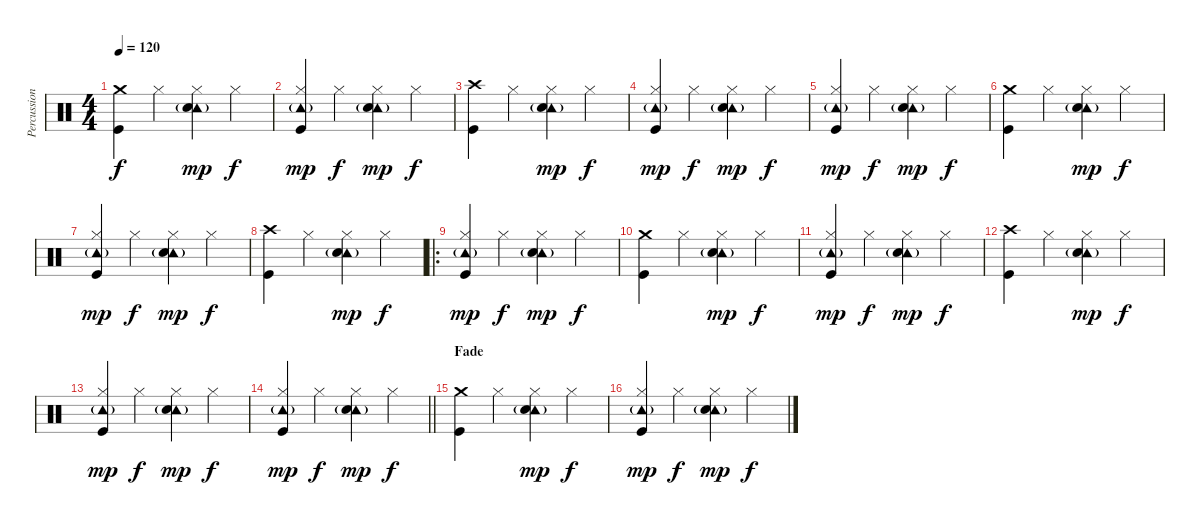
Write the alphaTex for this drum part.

\track ("Percussioni" "Percussion") {instrument percussion}
\staff {score}
\articulation defaults
\ts (4 4)
\tempo 120
\clef neutral
\ks c
("Crash medium (hit)" "Kick (hit)").4{dy f} "Hi-Hat (closed)".4 ("Tambourine (hit)"{g} "Hi-Hat (closed)" "Snare (hit) 2").4{dy mp} "Hi-Hat (closed)".4{dy f} |
("Tambourine (hit)"{g} "Hi-Hat (closed)" "Kick (hit)").4{dy mp} "Hi-Hat (closed)".4{dy f} ("Tambourine (hit)"{g} "Hi-Hat (closed)" "Snare (hit) 2").4{dy mp} "Hi-Hat (closed)".4{dy f} |
("Crash high (hit)" "Kick (hit)").4 "Hi-Hat (closed)".4 ("Tambourine (hit)"{g} "Hi-Hat (closed)" "Snare (hit) 2").4{dy mp} "Hi-Hat (closed)".4{dy f} |
("Tambourine (hit)"{g} "Hi-Hat (closed)" "Kick (hit)").4{dy mp} "Hi-Hat (closed)".4{dy f} ("Tambourine (hit)"{g} "Hi-Hat (closed)" "Snare (hit) 2").4{dy mp} "Hi-Hat (closed)".4{dy f} |
("Tambourine (hit)"{g} "Hi-Hat (closed)" "Kick (hit)").4{dy mp} "Hi-Hat (closed)".4{dy f} ("Tambourine (hit)"{g} "Hi-Hat (closed)" "Snare (hit) 2").4{dy mp} "Hi-Hat (closed)".4{dy f} |
("Crash medium (hit)" "Kick (hit)").4 "Hi-Hat (closed)".4 ("Tambourine (hit)"{g} "Hi-Hat (closed)" "Snare (hit) 2").4{dy mp} "Hi-Hat (closed)".4{dy f} |
("Tambourine (hit)"{g} "Hi-Hat (closed)" "Kick (hit)").4{dy mp} "Hi-Hat (closed)".4{dy f} ("Tambourine (hit)"{g} "Hi-Hat (closed)" "Snare (hit) 2").4{dy mp} "Hi-Hat (closed)".4{dy f} |
("Crash high (hit)" "Kick (hit)").4 "Hi-Hat (closed)".4 ("Tambourine (hit)"{g} "Hi-Hat (closed)" "Snare (hit) 2").4{dy mp} "Hi-Hat (closed)".4{dy f} |
\ro
("Tambourine (hit)"{g} "Hi-Hat (closed)" "Kick (hit)").4{dy mp} "Hi-Hat (closed)".4{dy f} ("Tambourine (hit)"{g} "Hi-Hat (closed)" "Snare (hit) 2").4{dy mp} "Hi-Hat (closed)".4{dy f} |
("Crash medium (hit)" "Kick (hit)").4 "Hi-Hat (closed)".4 ("Tambourine (hit)"{g} "Hi-Hat (closed)" "Snare (hit) 2").4{dy mp} "Hi-Hat (closed)".4{dy f} |
("Tambourine (hit)"{g} "Hi-Hat (closed)" "Kick (hit)").4{dy mp} "Hi-Hat (closed)".4{dy f} ("Tambourine (hit)"{g} "Hi-Hat (closed)" "Snare (hit) 2").4{dy mp} "Hi-Hat (closed)".4{dy f} |
("Crash high (hit)" "Kick (hit)").4 "Hi-Hat (closed)".4 ("Tambourine (hit)"{g} "Hi-Hat (closed)" "Snare (hit) 2").4{dy mp} "Hi-Hat (closed)".4{dy f} |
("Tambourine (hit)"{g} "Hi-Hat (closed)" "Kick (hit)").4{dy mp} "Hi-Hat (closed)".4{dy f} ("Tambourine (hit)"{g} "Hi-Hat (closed)" "Snare (hit) 2").4{dy mp} "Hi-Hat (closed)".4{dy f} |
\barLineRight lightlight
("Tambourine (hit)"{g} "Hi-Hat (closed)" "Kick (hit)").4{dy mp} "Hi-Hat (closed)".4{dy f} ("Tambourine (hit)"{g} "Hi-Hat (closed)" "Snare (hit) 2").4{dy mp} "Hi-Hat (closed)".4{dy f} |
\section ("" "Fade")
("Crash medium (hit)" "Kick (hit)").4 "Hi-Hat (closed)".4 ("Tambourine (hit)"{g} "Hi-Hat (closed)" "Snare (hit) 2").4{dy mp} "Hi-Hat (closed)".4{dy f} |
("Tambourine (hit)"{g} "Hi-Hat (closed)" "Kick (hit)").4{dy mp} "Hi-Hat (closed)".4{dy f} ("Tambourine (hit)"{g} "Hi-Hat (closed)" "Snare (hit) 2").4{dy mp} "Hi-Hat (closed)".4{dy f}
